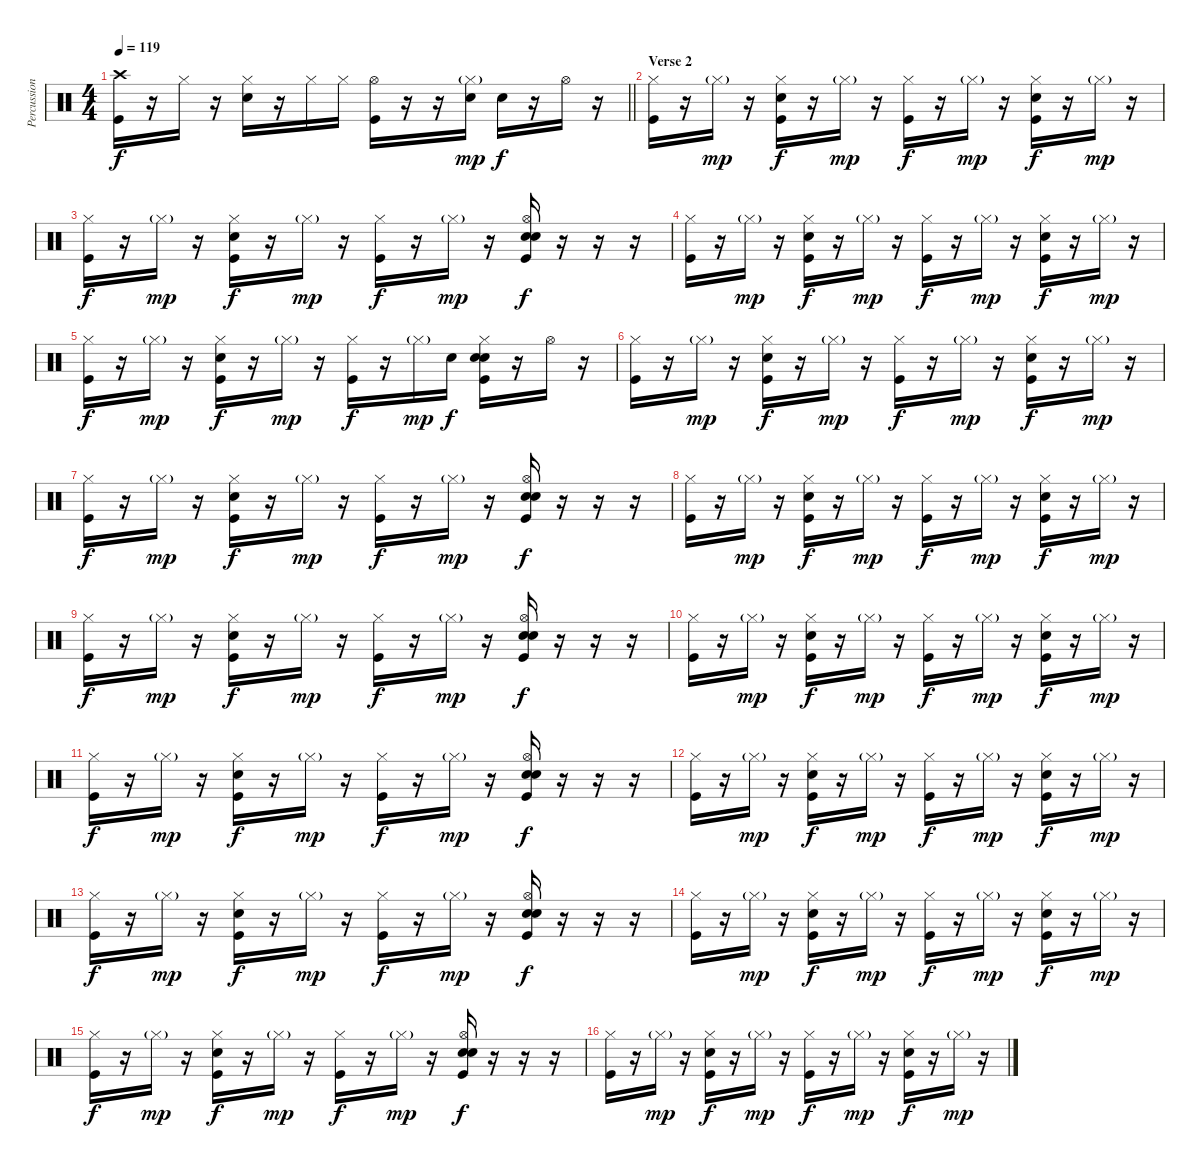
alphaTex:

\track ("Percussion" "Percussion") {instrument percussion}
\staff {score}
\articulation defaults
\ts (4 4)
\tempo 119
\clef neutral
\barLineRight lightlight
\ks c
("Crash high (hit)" "Kick (hit)").16{dy f} r.16 "Hi-Hat (closed)".16 r.16 ("Hi-Hat (closed)" "Hand Clap (hit)").16 r.16 "Hi-Hat (closed)".16 "Hi-Hat (closed)".16 ("Hi-Hat (open)" "Kick (hit)").16 r.16 r.16 ("Hi-Hat (closed)"{g} "Snare (hit) 2").16{dy mp} "Snare (hit) 2".16{dy f} r.16 "Hi-Hat (open)".16 r.16 |
\section ("" "Verse 2")
("Hi-Hat (closed)" "Kick (hit)").16 r.16 "Hi-Hat (closed)"{g}.16{dy mp} r.16 ("Hi-Hat (closed)" "Snare (hit) 2" "Kick (hit)").16{dy f} r.16 "Hi-Hat (closed)"{g}.16{dy mp} r.16 ("Hi-Hat (closed)" "Kick (hit)").16{dy f} r.16 "Hi-Hat (closed)"{g}.16{dy mp} r.16 ("Hi-Hat (closed)" "Snare (hit) 2" "Kick (hit)").16{dy f} r.16 "Hi-Hat (closed)"{g}.16{dy mp} r.16 |
("Hi-Hat (closed)" "Kick (hit)").16{dy f} r.16 "Hi-Hat (closed)"{g}.16{dy mp} r.16 ("Hi-Hat (closed)" "Snare (hit) 2" "Kick (hit)").16{dy f} r.16 "Hi-Hat (closed)"{g}.16{dy mp} r.16 ("Hi-Hat (closed)" "Kick (hit)").16{dy f} r.16 "Hi-Hat (closed)"{g}.16{dy mp} r.16 ("Hi-Hat (open)" "Hand Clap (hit)" "Snare (hit) 2" "Kick (hit)").16{dy f} r.16 r.16 r.16 |
("Hi-Hat (closed)" "Kick (hit)").16 r.16 "Hi-Hat (closed)"{g}.16{dy mp} r.16 ("Hi-Hat (closed)" "Snare (hit) 2" "Kick (hit)").16{dy f} r.16 "Hi-Hat (closed)"{g}.16{dy mp} r.16 ("Hi-Hat (closed)" "Kick (hit)").16{dy f} r.16 "Hi-Hat (closed)"{g}.16{dy mp} r.16 ("Hi-Hat (closed)" "Snare (hit) 2" "Kick (hit)").16{dy f} r.16 "Hi-Hat (closed)"{g}.16{dy mp} r.16 |
("Hi-Hat (closed)" "Kick (hit)").16{dy f} r.16 "Hi-Hat (closed)"{g}.16{dy mp} r.16 ("Hi-Hat (closed)" "Snare (hit) 2" "Kick (hit)").16{dy f} r.16 "Hi-Hat (closed)"{g}.16{dy mp} r.16 ("Hi-Hat (closed)" "Kick (hit)").16{dy f} r.16 "Hi-Hat (closed)"{g}.16{dy mp} "Snare (hit) 2".16{dy f} ("Hi-Hat (closed)" "Hand Clap (hit)" "Snare (hit) 2" "Kick (hit)").16 r.16 "Hi-Hat (open)".16 r.16 |
("Hi-Hat (closed)" "Kick (hit)").16 r.16 "Hi-Hat (closed)"{g}.16{dy mp} r.16 ("Hi-Hat (closed)" "Snare (hit) 2" "Kick (hit)").16{dy f} r.16 "Hi-Hat (closed)"{g}.16{dy mp} r.16 ("Hi-Hat (closed)" "Kick (hit)").16{dy f} r.16 "Hi-Hat (closed)"{g}.16{dy mp} r.16 ("Hi-Hat (closed)" "Snare (hit) 2" "Kick (hit)").16{dy f} r.16 "Hi-Hat (closed)"{g}.16{dy mp} r.16 |
("Hi-Hat (closed)" "Kick (hit)").16{dy f} r.16 "Hi-Hat (closed)"{g}.16{dy mp} r.16 ("Hi-Hat (closed)" "Snare (hit) 2" "Kick (hit)").16{dy f} r.16 "Hi-Hat (closed)"{g}.16{dy mp} r.16 ("Hi-Hat (closed)" "Kick (hit)").16{dy f} r.16 "Hi-Hat (closed)"{g}.16{dy mp} r.16 ("Hi-Hat (open)" "Hand Clap (hit)" "Snare (hit) 2" "Kick (hit)").16{dy f} r.16 r.16 r.16 |
("Hi-Hat (closed)" "Kick (hit)").16 r.16 "Hi-Hat (closed)"{g}.16{dy mp} r.16 ("Hi-Hat (closed)" "Snare (hit) 2" "Kick (hit)").16{dy f} r.16 "Hi-Hat (closed)"{g}.16{dy mp} r.16 ("Hi-Hat (closed)" "Kick (hit)").16{dy f} r.16 "Hi-Hat (closed)"{g}.16{dy mp} r.16 ("Hi-Hat (closed)" "Snare (hit) 2" "Kick (hit)").16{dy f} r.16 "Hi-Hat (closed)"{g}.16{dy mp} r.16 |
("Hi-Hat (closed)" "Kick (hit)").16{dy f} r.16 "Hi-Hat (closed)"{g}.16{dy mp} r.16 ("Hi-Hat (closed)" "Snare (hit) 2" "Kick (hit)").16{dy f} r.16 "Hi-Hat (closed)"{g}.16{dy mp} r.16 ("Hi-Hat (closed)" "Kick (hit)").16{dy f} r.16 "Hi-Hat (closed)"{g}.16{dy mp} r.16 ("Hi-Hat (open)" "Hand Clap (hit)" "Snare (hit) 2" "Kick (hit)").16{dy f} r.16 r.16 r.16 |
("Hi-Hat (closed)" "Kick (hit)").16 r.16 "Hi-Hat (closed)"{g}.16{dy mp} r.16 ("Hi-Hat (closed)" "Snare (hit) 2" "Kick (hit)").16{dy f} r.16 "Hi-Hat (closed)"{g}.16{dy mp} r.16 ("Hi-Hat (closed)" "Kick (hit)").16{dy f} r.16 "Hi-Hat (closed)"{g}.16{dy mp} r.16 ("Hi-Hat (closed)" "Snare (hit) 2" "Kick (hit)").16{dy f} r.16 "Hi-Hat (closed)"{g}.16{dy mp} r.16 |
("Hi-Hat (closed)" "Kick (hit)").16{dy f} r.16 "Hi-Hat (closed)"{g}.16{dy mp} r.16 ("Hi-Hat (closed)" "Snare (hit) 2" "Kick (hit)").16{dy f} r.16 "Hi-Hat (closed)"{g}.16{dy mp} r.16 ("Hi-Hat (closed)" "Kick (hit)").16{dy f} r.16 "Hi-Hat (closed)"{g}.16{dy mp} r.16 ("Hi-Hat (open)" "Hand Clap (hit)" "Snare (hit) 2" "Kick (hit)").16{dy f} r.16 r.16 r.16 |
("Hi-Hat (closed)" "Kick (hit)").16 r.16 "Hi-Hat (closed)"{g}.16{dy mp} r.16 ("Hi-Hat (closed)" "Snare (hit) 2" "Kick (hit)").16{dy f} r.16 "Hi-Hat (closed)"{g}.16{dy mp} r.16 ("Hi-Hat (closed)" "Kick (hit)").16{dy f} r.16 "Hi-Hat (closed)"{g}.16{dy mp} r.16 ("Hi-Hat (closed)" "Snare (hit) 2" "Kick (hit)").16{dy f} r.16 "Hi-Hat (closed)"{g}.16{dy mp} r.16 |
("Hi-Hat (closed)" "Kick (hit)").16{dy f} r.16 "Hi-Hat (closed)"{g}.16{dy mp} r.16 ("Hi-Hat (closed)" "Snare (hit) 2" "Kick (hit)").16{dy f} r.16 "Hi-Hat (closed)"{g}.16{dy mp} r.16 ("Hi-Hat (closed)" "Kick (hit)").16{dy f} r.16 "Hi-Hat (closed)"{g}.16{dy mp} r.16 ("Hi-Hat (open)" "Hand Clap (hit)" "Snare (hit) 2" "Kick (hit)").16{dy f} r.16 r.16 r.16 |
("Hi-Hat (closed)" "Kick (hit)").16 r.16 "Hi-Hat (closed)"{g}.16{dy mp} r.16 ("Hi-Hat (closed)" "Snare (hit) 2" "Kick (hit)").16{dy f} r.16 "Hi-Hat (closed)"{g}.16{dy mp} r.16 ("Hi-Hat (closed)" "Kick (hit)").16{dy f} r.16 "Hi-Hat (closed)"{g}.16{dy mp} r.16 ("Hi-Hat (closed)" "Snare (hit) 2" "Kick (hit)").16{dy f} r.16 "Hi-Hat (closed)"{g}.16{dy mp} r.16 |
("Hi-Hat (closed)" "Kick (hit)").16{dy f} r.16 "Hi-Hat (closed)"{g}.16{dy mp} r.16 ("Hi-Hat (closed)" "Snare (hit) 2" "Kick (hit)").16{dy f} r.16 "Hi-Hat (closed)"{g}.16{dy mp} r.16 ("Hi-Hat (closed)" "Kick (hit)").16{dy f} r.16 "Hi-Hat (closed)"{g}.16{dy mp} r.16 ("Hi-Hat (open)" "Hand Clap (hit)" "Snare (hit) 2" "Kick (hit)").16{dy f} r.16 r.16 r.16 |
("Hi-Hat (closed)" "Kick (hit)").16 r.16 "Hi-Hat (closed)"{g}.16{dy mp} r.16 ("Hi-Hat (closed)" "Snare (hit) 2" "Kick (hit)").16{dy f} r.16 "Hi-Hat (closed)"{g}.16{dy mp} r.16 ("Hi-Hat (closed)" "Kick (hit)").16{dy f} r.16 "Hi-Hat (closed)"{g}.16{dy mp} r.16 ("Hi-Hat (closed)" "Snare (hit) 2" "Kick (hit)").16{dy f} r.16 "Hi-Hat (closed)"{g}.16{dy mp} r.16
